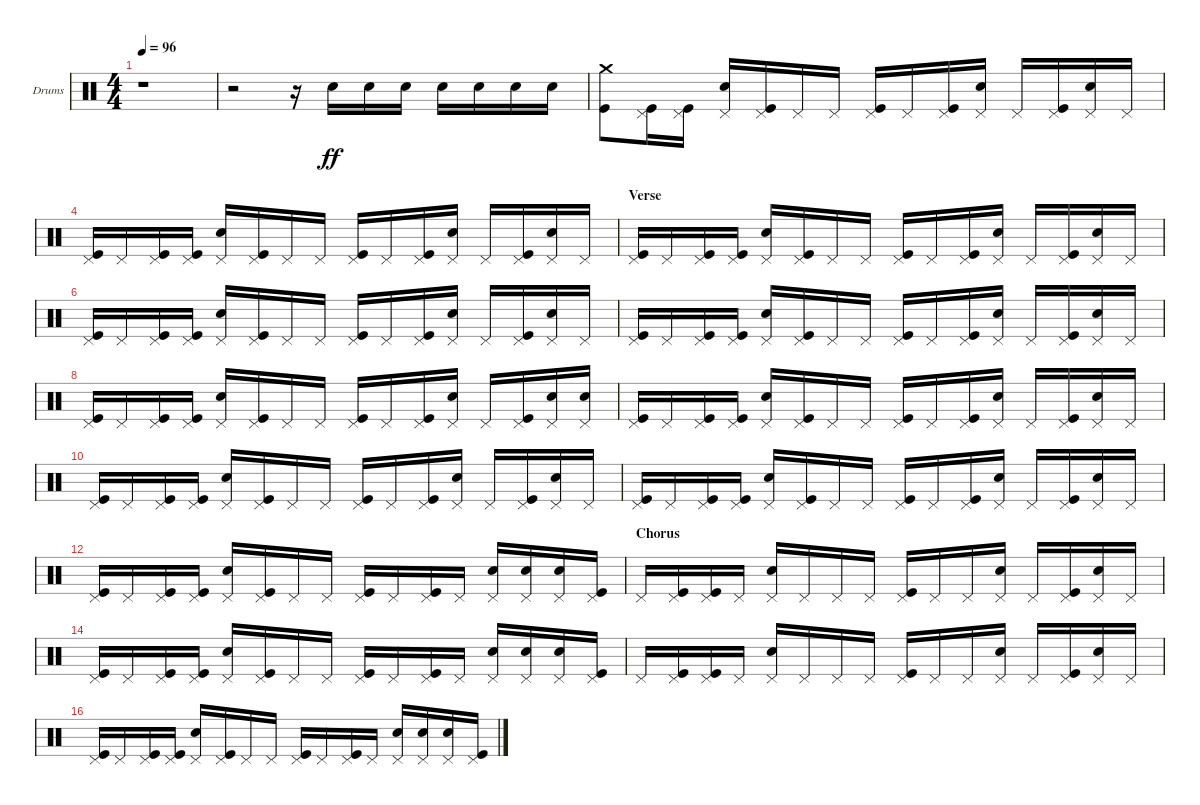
\bracketExtendMode nobrackets
\firstSystemTrackNameOrientation horizontal
\otherSystemsTrackNameOrientation horizontal
\defaultBarNumberDisplay FirstOfSystem
\track ("Drums" "Drums") {instrument percussion}
\staff {score}
\articulation defaults
\ts (4 4)
\tempo 96
\clef neutral
\ks c
r.1{dy ff} |
r.2 r.16 "Snare (hit) 2".16 "Snare (hit) 2".16 "Snare (hit) 2".16 "Snare (hit) 2".16 "Snare (hit) 2".16 "Snare (hit) 2".16 "Snare (hit) 2".16 |
("Kick (hit)" "Crash medium (hit)").8 ("Kick (hit)" "Pedal Hi-Hat (hit)").16 ("Kick (hit)" "Pedal Hi-Hat (hit)").16 ("Snare (hit) 2" "Pedal Hi-Hat (hit)").16 ("Kick (hit)" "Pedal Hi-Hat (hit)").16 "Pedal Hi-Hat (hit)".16 "Pedal Hi-Hat (hit)".16 ("Kick (hit)" "Pedal Hi-Hat (hit)").16 "Pedal Hi-Hat (hit)".16 ("Kick (hit)" "Pedal Hi-Hat (hit)").16 ("Snare (hit) 2" "Pedal Hi-Hat (hit)").16 "Pedal Hi-Hat (hit)".16 ("Kick (hit)" "Pedal Hi-Hat (hit)").16 ("Snare (hit) 2" "Pedal Hi-Hat (hit)").16 "Pedal Hi-Hat (hit)".16 |
("Kick (hit)" "Pedal Hi-Hat (hit)").16 "Pedal Hi-Hat (hit)".16 ("Kick (hit)" "Pedal Hi-Hat (hit)").16 ("Kick (hit)" "Pedal Hi-Hat (hit)").16 ("Snare (hit) 2" "Pedal Hi-Hat (hit)").16 ("Kick (hit)" "Pedal Hi-Hat (hit)").16 "Pedal Hi-Hat (hit)".16 "Pedal Hi-Hat (hit)".16 ("Kick (hit)" "Pedal Hi-Hat (hit)").16 "Pedal Hi-Hat (hit)".16 ("Kick (hit)" "Pedal Hi-Hat (hit)").16 ("Snare (hit) 2" "Pedal Hi-Hat (hit)").16 "Pedal Hi-Hat (hit)".16 ("Kick (hit)" "Pedal Hi-Hat (hit)").16 ("Snare (hit) 2" "Pedal Hi-Hat (hit)").16 "Pedal Hi-Hat (hit)".16 |
\section ("" "Verse")
("Kick (hit)" "Pedal Hi-Hat (hit)").16 "Pedal Hi-Hat (hit)".16 ("Kick (hit)" "Pedal Hi-Hat (hit)").16 ("Kick (hit)" "Pedal Hi-Hat (hit)").16 ("Snare (hit) 2" "Pedal Hi-Hat (hit)").16 ("Kick (hit)" "Pedal Hi-Hat (hit)").16 "Pedal Hi-Hat (hit)".16 "Pedal Hi-Hat (hit)".16 ("Kick (hit)" "Pedal Hi-Hat (hit)").16 "Pedal Hi-Hat (hit)".16 ("Kick (hit)" "Pedal Hi-Hat (hit)").16 ("Snare (hit) 2" "Pedal Hi-Hat (hit)").16 "Pedal Hi-Hat (hit)".16 ("Kick (hit)" "Pedal Hi-Hat (hit)").16 ("Snare (hit) 2" "Pedal Hi-Hat (hit)").16 "Pedal Hi-Hat (hit)".16 |
("Kick (hit)" "Pedal Hi-Hat (hit)").16 "Pedal Hi-Hat (hit)".16 ("Kick (hit)" "Pedal Hi-Hat (hit)").16 ("Kick (hit)" "Pedal Hi-Hat (hit)").16 ("Snare (hit) 2" "Pedal Hi-Hat (hit)").16 ("Kick (hit)" "Pedal Hi-Hat (hit)").16 "Pedal Hi-Hat (hit)".16 "Pedal Hi-Hat (hit)".16 ("Kick (hit)" "Pedal Hi-Hat (hit)").16 "Pedal Hi-Hat (hit)".16 ("Kick (hit)" "Pedal Hi-Hat (hit)").16 ("Snare (hit) 2" "Pedal Hi-Hat (hit)").16 "Pedal Hi-Hat (hit)".16 ("Kick (hit)" "Pedal Hi-Hat (hit)").16 ("Snare (hit) 2" "Pedal Hi-Hat (hit)").16 "Pedal Hi-Hat (hit)".16 |
("Kick (hit)" "Pedal Hi-Hat (hit)").16 "Pedal Hi-Hat (hit)".16 ("Kick (hit)" "Pedal Hi-Hat (hit)").16 ("Kick (hit)" "Pedal Hi-Hat (hit)").16 ("Snare (hit) 2" "Pedal Hi-Hat (hit)").16 ("Kick (hit)" "Pedal Hi-Hat (hit)").16 "Pedal Hi-Hat (hit)".16 "Pedal Hi-Hat (hit)".16 ("Kick (hit)" "Pedal Hi-Hat (hit)").16 "Pedal Hi-Hat (hit)".16 ("Kick (hit)" "Pedal Hi-Hat (hit)").16 ("Snare (hit) 2" "Pedal Hi-Hat (hit)").16 "Pedal Hi-Hat (hit)".16 ("Kick (hit)" "Pedal Hi-Hat (hit)").16 ("Snare (hit) 2" "Pedal Hi-Hat (hit)").16 "Pedal Hi-Hat (hit)".16 |
("Kick (hit)" "Pedal Hi-Hat (hit)").16 "Pedal Hi-Hat (hit)".16 ("Kick (hit)" "Pedal Hi-Hat (hit)").16 ("Kick (hit)" "Pedal Hi-Hat (hit)").16 ("Snare (hit) 2" "Pedal Hi-Hat (hit)").16 ("Kick (hit)" "Pedal Hi-Hat (hit)").16 "Pedal Hi-Hat (hit)".16 "Pedal Hi-Hat (hit)".16 ("Kick (hit)" "Pedal Hi-Hat (hit)").16 "Pedal Hi-Hat (hit)".16 ("Kick (hit)" "Pedal Hi-Hat (hit)").16 ("Snare (hit) 2" "Pedal Hi-Hat (hit)").16 "Pedal Hi-Hat (hit)".16 ("Kick (hit)" "Pedal Hi-Hat (hit)").16 ("Snare (hit) 2" "Pedal Hi-Hat (hit)").16 ("Snare (hit) 2" "Pedal Hi-Hat (hit)").16 |
("Kick (hit)" "Pedal Hi-Hat (hit)").16 "Pedal Hi-Hat (hit)".16 ("Kick (hit)" "Pedal Hi-Hat (hit)").16 ("Kick (hit)" "Pedal Hi-Hat (hit)").16 ("Snare (hit) 2" "Pedal Hi-Hat (hit)").16 ("Kick (hit)" "Pedal Hi-Hat (hit)").16 "Pedal Hi-Hat (hit)".16 "Pedal Hi-Hat (hit)".16 ("Kick (hit)" "Pedal Hi-Hat (hit)").16 "Pedal Hi-Hat (hit)".16 ("Kick (hit)" "Pedal Hi-Hat (hit)").16 ("Snare (hit) 2" "Pedal Hi-Hat (hit)").16 "Pedal Hi-Hat (hit)".16 ("Kick (hit)" "Pedal Hi-Hat (hit)").16 ("Snare (hit) 2" "Pedal Hi-Hat (hit)").16 "Pedal Hi-Hat (hit)".16 |
("Kick (hit)" "Pedal Hi-Hat (hit)").16 "Pedal Hi-Hat (hit)".16 ("Kick (hit)" "Pedal Hi-Hat (hit)").16 ("Kick (hit)" "Pedal Hi-Hat (hit)").16 ("Snare (hit) 2" "Pedal Hi-Hat (hit)").16 ("Kick (hit)" "Pedal Hi-Hat (hit)").16 "Pedal Hi-Hat (hit)".16 "Pedal Hi-Hat (hit)".16 ("Kick (hit)" "Pedal Hi-Hat (hit)").16 "Pedal Hi-Hat (hit)".16 ("Kick (hit)" "Pedal Hi-Hat (hit)").16 ("Snare (hit) 2" "Pedal Hi-Hat (hit)").16 "Pedal Hi-Hat (hit)".16 ("Kick (hit)" "Pedal Hi-Hat (hit)").16 ("Snare (hit) 2" "Pedal Hi-Hat (hit)").16 "Pedal Hi-Hat (hit)".16 |
("Kick (hit)" "Pedal Hi-Hat (hit)").16 "Pedal Hi-Hat (hit)".16 ("Kick (hit)" "Pedal Hi-Hat (hit)").16 ("Kick (hit)" "Pedal Hi-Hat (hit)").16 ("Snare (hit) 2" "Pedal Hi-Hat (hit)").16 ("Kick (hit)" "Pedal Hi-Hat (hit)").16 "Pedal Hi-Hat (hit)".16 "Pedal Hi-Hat (hit)".16 ("Kick (hit)" "Pedal Hi-Hat (hit)").16 "Pedal Hi-Hat (hit)".16 ("Kick (hit)" "Pedal Hi-Hat (hit)").16 ("Snare (hit) 2" "Pedal Hi-Hat (hit)").16 "Pedal Hi-Hat (hit)".16 ("Kick (hit)" "Pedal Hi-Hat (hit)").16 ("Snare (hit) 2" "Pedal Hi-Hat (hit)").16 "Pedal Hi-Hat (hit)".16 |
("Kick (hit)" "Pedal Hi-Hat (hit)").16 "Pedal Hi-Hat (hit)".16 ("Kick (hit)" "Pedal Hi-Hat (hit)").16 ("Kick (hit)" "Pedal Hi-Hat (hit)").16 ("Snare (hit) 2" "Pedal Hi-Hat (hit)").16 ("Kick (hit)" "Pedal Hi-Hat (hit)").16 "Pedal Hi-Hat (hit)".16 "Pedal Hi-Hat (hit)".16 ("Kick (hit)" "Pedal Hi-Hat (hit)").16 "Pedal Hi-Hat (hit)".16 ("Kick (hit)" "Pedal Hi-Hat (hit)").16 "Pedal Hi-Hat (hit)".16 ("Snare (hit) 2" "Pedal Hi-Hat (hit)").16 ("Snare (hit) 2" "Pedal Hi-Hat (hit)").16 ("Snare (hit) 2" "Pedal Hi-Hat (hit)").16 ("Kick (hit)" "Pedal Hi-Hat (hit)").16 |
\section ("" "Chorus")
"Pedal Hi-Hat (hit)".16 ("Kick (hit)" "Pedal Hi-Hat (hit)").16 ("Kick (hit)" "Pedal Hi-Hat (hit)").16 "Pedal Hi-Hat (hit)".16 ("Snare (hit) 2" "Pedal Hi-Hat (hit)").16 "Pedal Hi-Hat (hit)".16 "Pedal Hi-Hat (hit)".16 "Pedal Hi-Hat (hit)".16 ("Kick (hit)" "Pedal Hi-Hat (hit)").16 "Pedal Hi-Hat (hit)".16 "Pedal Hi-Hat (hit)".16 ("Snare (hit) 2" "Pedal Hi-Hat (hit)").16 "Pedal Hi-Hat (hit)".16 ("Kick (hit)" "Pedal Hi-Hat (hit)").16 ("Snare (hit) 2" "Pedal Hi-Hat (hit)").16 "Pedal Hi-Hat (hit)".16 |
("Kick (hit)" "Pedal Hi-Hat (hit)").16 "Pedal Hi-Hat (hit)".16 ("Kick (hit)" "Pedal Hi-Hat (hit)").16 ("Kick (hit)" "Pedal Hi-Hat (hit)").16 ("Snare (hit) 2" "Pedal Hi-Hat (hit)").16 ("Kick (hit)" "Pedal Hi-Hat (hit)").16 "Pedal Hi-Hat (hit)".16 "Pedal Hi-Hat (hit)".16 ("Kick (hit)" "Pedal Hi-Hat (hit)").16 "Pedal Hi-Hat (hit)".16 ("Kick (hit)" "Pedal Hi-Hat (hit)").16 "Pedal Hi-Hat (hit)".16 ("Snare (hit) 2" "Pedal Hi-Hat (hit)").16 ("Snare (hit) 2" "Pedal Hi-Hat (hit)").16 ("Snare (hit) 2" "Pedal Hi-Hat (hit)").16 ("Kick (hit)" "Pedal Hi-Hat (hit)").16 |
"Pedal Hi-Hat (hit)".16 ("Kick (hit)" "Pedal Hi-Hat (hit)").16 ("Kick (hit)" "Pedal Hi-Hat (hit)").16 "Pedal Hi-Hat (hit)".16 ("Snare (hit) 2" "Pedal Hi-Hat (hit)").16 "Pedal Hi-Hat (hit)".16 "Pedal Hi-Hat (hit)".16 "Pedal Hi-Hat (hit)".16 ("Kick (hit)" "Pedal Hi-Hat (hit)").16 "Pedal Hi-Hat (hit)".16 "Pedal Hi-Hat (hit)".16 ("Snare (hit) 2" "Pedal Hi-Hat (hit)").16 "Pedal Hi-Hat (hit)".16 ("Kick (hit)" "Pedal Hi-Hat (hit)").16 ("Snare (hit) 2" "Pedal Hi-Hat (hit)").16 "Pedal Hi-Hat (hit)".16 |
("Kick (hit)" "Pedal Hi-Hat (hit)").16 "Pedal Hi-Hat (hit)".16 ("Kick (hit)" "Pedal Hi-Hat (hit)").16 ("Kick (hit)" "Pedal Hi-Hat (hit)").16 ("Snare (hit) 2" "Pedal Hi-Hat (hit)").16 ("Kick (hit)" "Pedal Hi-Hat (hit)").16 "Pedal Hi-Hat (hit)".16 "Pedal Hi-Hat (hit)".16 ("Kick (hit)" "Pedal Hi-Hat (hit)").16 "Pedal Hi-Hat (hit)".16 ("Kick (hit)" "Pedal Hi-Hat (hit)").16 "Pedal Hi-Hat (hit)".16 ("Snare (hit) 2" "Pedal Hi-Hat (hit)").16 ("Snare (hit) 2" "Pedal Hi-Hat (hit)").16 ("Snare (hit) 2" "Pedal Hi-Hat (hit)").16 ("Kick (hit)" "Pedal Hi-Hat (hit)").16
